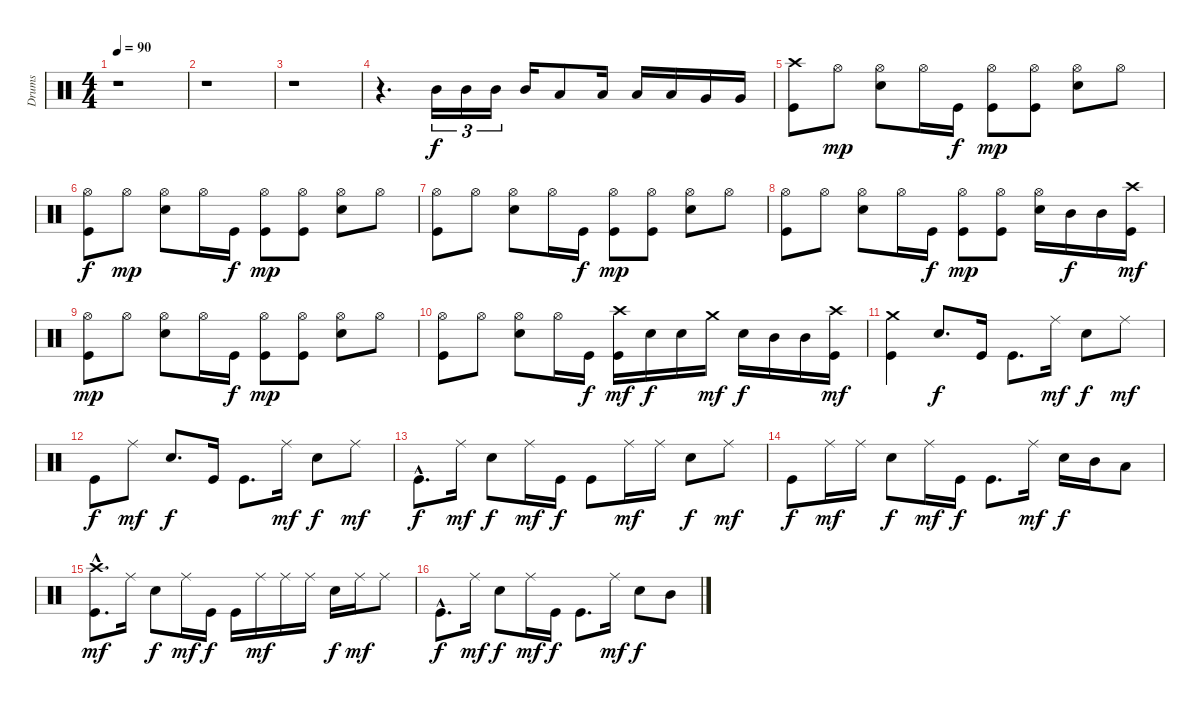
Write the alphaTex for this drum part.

\track ("Drums" "Drums") {instrument percussion}
\staff {score}
\articulation defaults
\ts (4 4)
\tempo 90
\clef neutral
\ks c
r.1{dy f} |
r.1 |
r.1 |
r.4{d} "Mid Tom (hit)".16{tu (3 2)} "Mid Tom (hit)".16{tu (3 2)} "Mid Tom (hit)".16{tu (3 2)} "Mid Tom (hit)".16 "Low Tom (hit)".8 "Low Tom (hit)".16 "Low Tom (hit)".16 "Low Tom (hit)".16 "Very Low Tom (hit)".16 "Very Low Tom (hit)".16 |
("Crash high (hit)" "Kick (hit)").8 "Hi-Hat (open)".8{dy mp} ("Hi-Hat (open)" "Snare (hit) 2").8 "Hi-Hat (open)".16 "Kick (hit)".16{dy f} ("Hi-Hat (open)" "Kick (hit)").8{dy mp} ("Hi-Hat (open)" "Kick (hit)").8 ("Hi-Hat (open)" "Snare (hit) 2").8 "Hi-Hat (open)".8 |
("Hi-Hat (open)" "Kick (hit)").8{dy f} "Hi-Hat (open)".8{dy mp} ("Hi-Hat (open)" "Snare (hit) 2").8 "Hi-Hat (open)".16 "Kick (hit)".16{dy f} ("Hi-Hat (open)" "Kick (hit)").8{dy mp} ("Hi-Hat (open)" "Kick (hit)").8 ("Hi-Hat (open)" "Snare (hit) 2").8 "Hi-Hat (open)".8 |
("Hi-Hat (open)" "Kick (hit)").8 "Hi-Hat (open)".8 ("Hi-Hat (open)" "Snare (hit) 2").8 "Hi-Hat (open)".16 "Kick (hit)".16{dy f} ("Hi-Hat (open)" "Kick (hit)").8{dy mp} ("Hi-Hat (open)" "Kick (hit)").8 ("Hi-Hat (open)" "Snare (hit) 2").8 "Hi-Hat (open)".8 |
("Hi-Hat (open)" "Kick (hit)").8 "Hi-Hat (open)".8 ("Hi-Hat (open)" "Snare (hit) 2").8 "Hi-Hat (open)".16 "Kick (hit)".16{dy f} ("Hi-Hat (open)" "Kick (hit)").8{dy mp} ("Hi-Hat (open)" "Kick (hit)").8 ("Hi-Hat (open)" "Snare (hit) 2").16 "Mid Tom (hit)".16{dy f} "Mid Tom (hit)".16 ("Crash high (hit)" "Kick (hit)").16{dy mf} |
("Hi-Hat (open)" "Kick (hit)").8{dy mp} "Hi-Hat (open)".8 ("Hi-Hat (open)" "Snare (hit) 2").8 "Hi-Hat (open)".16 "Kick (hit)".16{dy f} ("Hi-Hat (open)" "Kick (hit)").8{dy mp} ("Hi-Hat (open)" "Kick (hit)").8 ("Hi-Hat (open)" "Snare (hit) 2").8 "Hi-Hat (open)".8 |
("Hi-Hat (open)" "Kick (hit)").8 "Hi-Hat (open)".8 ("Hi-Hat (open)" "Snare (hit) 2").8 "Hi-Hat (open)".16 "Kick (hit)".16{dy f} ("Crash high (hit)" "Kick (hit)").16{dy mf} "Snare (hit) 2".16{dy f} "Snare (hit) 2".16 "Crash medium (hit)".16{dy mf} "Snare (hit) 2".16{dy f} "Mid Tom (hit)".16 "Mid Tom (hit)".16 ("Crash high (hit)" "Kick (hit)").16{dy mf} |
("Crash medium (hit)" "Kick (hit)").4 "Snare (hit) 2".8{d dy f} "Kick (hit)".16 "Kick (hit)".8{d} "Ride (middle)".16{dy mf} "Snare (hit) 2".8{dy f} "Ride (middle)".8{dy mf} |
"Kick (hit)".8{dy f} "Ride (middle)".8{dy mf} "Snare (hit) 2".8{d dy f} "Kick (hit)".16 "Kick (hit)".8{d} "Ride (middle)".16{dy mf} "Snare (hit) 2".8{dy f} "Ride (middle)".8{dy mf} |
"Kick (hit)"{hac}.8{d dy f} "Ride (middle)".16{dy mf} "Snare (hit) 2".8{dy f} "Ride (middle)".16{dy mf} "Kick (hit)".16{dy f} "Kick (hit)".8 "Ride (middle)".16{dy mf} "Ride (middle)".16 "Snare (hit) 2".8{dy f} "Ride (middle)".8{dy mf} |
"Kick (hit)".8{dy f} "Ride (middle)".16{dy mf} "Ride (middle)".16 "Snare (hit) 2".8{dy f} "Ride (middle)".16{dy mf} "Kick (hit)".16{dy f} "Kick (hit)".8{d} "Ride (middle)".16{dy mf} "Snare (hit) 2".16{dy f} "Mid Tom (hit)".16 "Low Tom (hit)".8 |
("Crash high (hit)"{hac} "Kick (hit)"{hac}).8{d dy mf} "Ride (middle)".16 "Snare (hit) 2".8{dy f} "Ride (middle)".16{dy mf} "Kick (hit)".16{dy f} "Kick (hit)".16 "Ride (middle)".16{dy mf} "Ride (middle)".16 "Ride (middle)".16 "Snare (hit) 2".16{dy f} "Ride (middle)".16{dy mf} "Ride (middle)".8 |
"Kick (hit)"{hac}.8{d dy f} "Ride (middle)".16{dy mf} "Snare (hit) 2".8{dy f} "Ride (middle)".16{dy mf} "Kick (hit)".16{dy f} "Kick (hit)".8{d} "Ride (middle)".16{dy mf} "Snare (hit) 2".8{dy f} "Mid Tom (hit)".8
